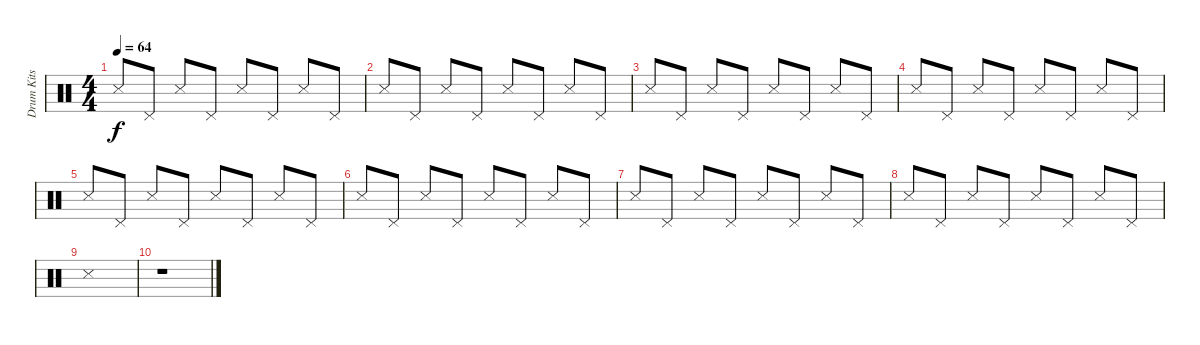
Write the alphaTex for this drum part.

\track ("Drum Kits" "Drum Kits") {instrument percussion}
\staff {score}
\articulation defaults
\ts (4 4)
\tempo 64
\clef neutral
\ks c "Snare (side stick) 3".8{dy f} "Pedal Hi-Hat (hit)".8 "Snare (side stick) 3".8 "Pedal Hi-Hat (hit)".8 "Snare (side stick) 3".8 "Pedal Hi-Hat (hit)".8 "Snare (side stick) 3".8 "Pedal Hi-Hat (hit)".8
|
"Snare (side stick) 3".8 "Pedal Hi-Hat (hit)".8 "Snare (side stick) 3".8 "Pedal Hi-Hat (hit)".8 "Snare (side stick) 3".8 "Pedal Hi-Hat (hit)".8 "Snare (side stick) 3".8 "Pedal Hi-Hat (hit)".8 |
"Snare (side stick) 3".8 "Pedal Hi-Hat (hit)".8 "Snare (side stick) 3".8 "Pedal Hi-Hat (hit)".8 "Snare (side stick) 3".8 "Pedal Hi-Hat (hit)".8 "Snare (side stick) 3".8 "Pedal Hi-Hat (hit)".8 |
"Snare (side stick) 3".8 "Pedal Hi-Hat (hit)".8 "Snare (side stick) 3".8 "Pedal Hi-Hat (hit)".8 "Snare (side stick) 3".8 "Pedal Hi-Hat (hit)".8 "Snare (side stick) 3".8 "Pedal Hi-Hat (hit)".8 |
"Snare (side stick) 3".8 "Pedal Hi-Hat (hit)".8 "Snare (side stick) 3".8 "Pedal Hi-Hat (hit)".8 "Snare (side stick) 3".8 "Pedal Hi-Hat (hit)".8 "Snare (side stick) 3".8 "Pedal Hi-Hat (hit)".8 |
"Snare (side stick) 3".8 "Pedal Hi-Hat (hit)".8 "Snare (side stick) 3".8 "Pedal Hi-Hat (hit)".8 "Snare (side stick) 3".8 "Pedal Hi-Hat (hit)".8 "Snare (side stick) 3".8 "Pedal Hi-Hat (hit)".8 |
"Snare (side stick) 3".8 "Pedal Hi-Hat (hit)".8 "Snare (side stick) 3".8 "Pedal Hi-Hat (hit)".8 "Snare (side stick) 3".8 "Pedal Hi-Hat (hit)".8 "Snare (side stick) 3".8 "Pedal Hi-Hat (hit)".8 |
"Snare (side stick) 3".8 "Pedal Hi-Hat (hit)".8 "Snare (side stick) 3".8 "Pedal Hi-Hat (hit)".8 "Snare (side stick) 3".8 "Pedal Hi-Hat (hit)".8 "Snare (side stick) 3".8 "Pedal Hi-Hat (hit)".8 |
"Snare (side stick) 3".1 |
r.1
